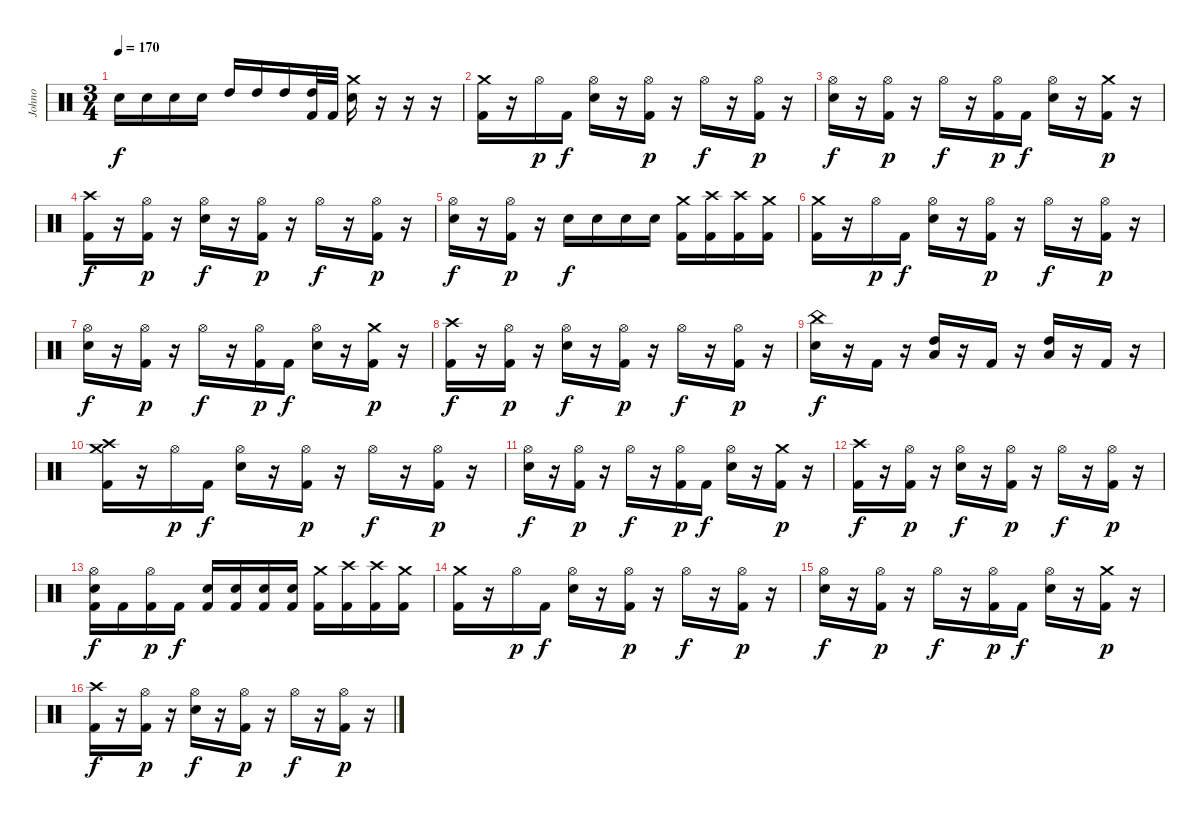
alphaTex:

\track ("Johno" "Johno") {instrument percussion}
\staff {score}
\articulation defaults
\ts (3 4)
\tempo 170
\clef neutral
\ks c "Electric Snare (hit)".16{dy f} "Electric Snare (hit)".16 "Electric Snare (hit)".16 "Electric Snare (hit)".16 "High Tom (hit)".16 "High Tom (hit)".16 "High Tom (hit)".16
("High Tom (hit)" "Kick (hit) 2").32 "Kick (hit) 2".32 ("Crash medium (hit)" "Electric Snare (hit)").16 r.16 r.16 r.16 |
("Crash medium (hit)" "Kick (hit) 2").16 r.16 "Hi-Hat (open)".16{dy p} "Kick (hit) 2".16{dy f} ("Hi-Hat (open)" "Electric Snare (hit)").16 r.16 ("Hi-Hat (open)" "Kick (hit) 2").16{dy p} r.16 "Hi-Hat (open)".16{dy f} r.16 ("Hi-Hat (open)" "Kick (hit) 2").16{dy p} r.16 |
("Hi-Hat (open)" "Electric Snare (hit)").16{dy f} r.16 ("Hi-Hat (open)" "Kick (hit) 2").16{dy p} r.16 "Hi-Hat (open)".16{dy f} r.16 ("Hi-Hat (open)" "Kick (hit) 2").16{dy p} "Kick (hit) 2".16{dy f} ("Hi-Hat (open)" "Electric Snare (hit)").16 r.16 ("Crash medium (hit)" "Kick (hit) 2").16{dy p} r.16 |
("Crash high (hit)" "Kick (hit) 2").16{dy f} r.16 ("Hi-Hat (open)" "Kick (hit) 2").16{dy p} r.16 ("Hi-Hat (open)" "Electric Snare (hit)").16{dy f} r.16 ("Hi-Hat (open)" "Kick (hit) 2").16{dy p} r.16 "Hi-Hat (open)".16{dy f} r.16 ("Hi-Hat (open)" "Kick (hit) 2").16{dy p} r.16 |
("Hi-Hat (open)" "Electric Snare (hit)").16{dy f} r.16 ("Hi-Hat (open)" "Kick (hit) 2").16{dy p} r.16 "Electric Snare (hit)".16{dy f} "Electric Snare (hit)".16 "Electric Snare (hit)".16 "Electric Snare (hit)".16 ("Crash medium (hit)" "Kick (hit) 2").16 ("Crash high (hit)" "Kick (hit) 2").16 ("Crash high (hit)" "Kick (hit) 2").16 ("Crash medium (hit)" "Kick (hit) 2").16 |
("Crash medium (hit)" "Kick (hit) 2").16 r.16 "Hi-Hat (open)".16{dy p} "Kick (hit) 2".16{dy f} ("Hi-Hat (open)" "Electric Snare (hit)").16 r.16 ("Hi-Hat (open)" "Kick (hit) 2").16{dy p} r.16 "Hi-Hat (open)".16{dy f} r.16 ("Hi-Hat (open)" "Kick (hit) 2").16{dy p} r.16 |
("Hi-Hat (open)" "Electric Snare (hit)").16{dy f} r.16 ("Hi-Hat (open)" "Kick (hit) 2").16{dy p} r.16 "Hi-Hat (open)".16{dy f} r.16 ("Hi-Hat (open)" "Kick (hit) 2").16{dy p} "Kick (hit) 2".16{dy f} ("Hi-Hat (open)" "Electric Snare (hit)").16 r.16 ("Crash medium (hit)" "Kick (hit) 2").16{dy p} r.16 |
("Crash high (hit)" "Kick (hit) 2").16{dy f} r.16 ("Hi-Hat (open)" "Kick (hit) 2").16{dy p} r.16 ("Hi-Hat (open)" "Electric Snare (hit)").16{dy f} r.16 ("Hi-Hat (open)" "Kick (hit) 2").16{dy p} r.16 "Hi-Hat (open)".16{dy f} r.16 ("Hi-Hat (open)" "Kick (hit) 2").16{dy p} r.16 |
("China (hit)" "Electric Snare (hit)").16{dy f} r.16 "Kick (hit) 2".16 r.16 ("Low Floor Tom (hit)" "High Tom (hit)").16 r.16 "Kick (hit) 2".16 r.16 ("High Tom (hit)" "Low Floor Tom (hit)").16 r.16 "Kick (hit) 2".16 r.16 |
("Crash high (hit)" "Crash medium (hit)" "Kick (hit) 2").16 r.16 "Hi-Hat (open)".16{dy p} "Kick (hit) 2".16{dy f} ("Hi-Hat (open)" "Electric Snare (hit)").16 r.16 ("Hi-Hat (open)" "Kick (hit) 2").16{dy p} r.16 "Hi-Hat (open)".16{dy f} r.16 ("Hi-Hat (open)" "Kick (hit) 2").16{dy p} r.16 |
("Hi-Hat (open)" "Electric Snare (hit)").16{dy f} r.16 ("Hi-Hat (open)" "Kick (hit) 2").16{dy p} r.16 "Hi-Hat (open)".16{dy f} r.16 ("Hi-Hat (open)" "Kick (hit) 2").16{dy p} "Kick (hit) 2".16{dy f} ("Hi-Hat (open)" "Electric Snare (hit)").16 r.16 ("Crash medium (hit)" "Kick (hit) 2").16{dy p} r.16 |
("Crash high (hit)" "Kick (hit) 2").16{dy f} r.16 ("Hi-Hat (open)" "Kick (hit) 2").16{dy p} r.16 ("Hi-Hat (open)" "Electric Snare (hit)").16{dy f} r.16 ("Hi-Hat (open)" "Kick (hit) 2").16{dy p} r.16 "Hi-Hat (open)".16{dy f} r.16 ("Hi-Hat (open)" "Kick (hit) 2").16{dy p} r.16 |
("Hi-Hat (open)" "Electric Snare (hit)" "Kick (hit) 2").16{dy f} "Kick (hit) 2".16 ("Hi-Hat (open)" "Kick (hit) 2").16{dy p} "Kick (hit) 2".16{dy f} ("Electric Snare (hit)" "Kick (hit) 2").16 ("Electric Snare (hit)" "Kick (hit) 2").16 ("Electric Snare (hit)" "Kick (hit) 2").16 ("Electric Snare (hit)" "Kick (hit) 2").16 ("Crash medium (hit)" "Kick (hit) 2").16 ("Crash high (hit)" "Kick (hit) 2").16 ("Crash high (hit)" "Kick (hit) 2").16 ("Crash medium (hit)" "Kick (hit) 2").16 |
("Crash medium (hit)" "Kick (hit) 2").16 r.16 "Hi-Hat (open)".16{dy p} "Kick (hit) 2".16{dy f} ("Hi-Hat (open)" "Electric Snare (hit)").16 r.16 ("Hi-Hat (open)" "Kick (hit) 2").16{dy p} r.16 "Hi-Hat (open)".16{dy f} r.16 ("Hi-Hat (open)" "Kick (hit) 2").16{dy p} r.16 |
("Hi-Hat (open)" "Electric Snare (hit)").16{dy f} r.16 ("Hi-Hat (open)" "Kick (hit) 2").16{dy p} r.16 "Hi-Hat (open)".16{dy f} r.16 ("Hi-Hat (open)" "Kick (hit) 2").16{dy p} "Kick (hit) 2".16{dy f} ("Hi-Hat (open)" "Electric Snare (hit)").16 r.16 ("Crash medium (hit)" "Kick (hit) 2").16{dy p} r.16 |
("Crash high (hit)" "Kick (hit) 2").16{dy f} r.16 ("Hi-Hat (open)" "Kick (hit) 2").16{dy p} r.16 ("Hi-Hat (open)" "Electric Snare (hit)").16{dy f} r.16 ("Hi-Hat (open)" "Kick (hit) 2").16{dy p} r.16 "Hi-Hat (open)".16{dy f} r.16 ("Hi-Hat (open)" "Kick (hit) 2").16{dy p} r.16
